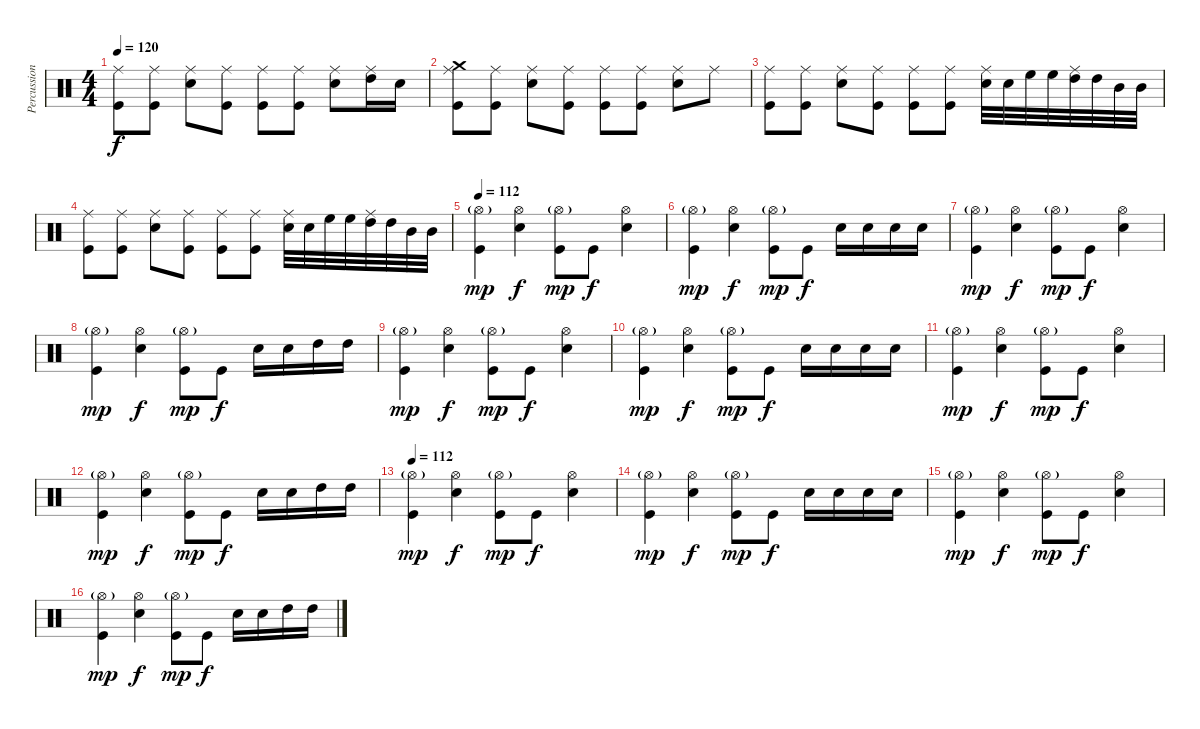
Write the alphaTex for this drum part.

\track ("Percussion" "Percussion") {instrument percussion}
\staff {score}
\articulation defaults
\ts (4 4)
\tempo 120
\clef neutral
\ks c
("Ride (middle)" "Kick (hit)").8{dy f} ("Ride (middle)" "Kick (hit)").8 ("Ride (middle)" "Snare (hit) 2").8 ("Ride (middle)" "Kick (hit)").8 ("Ride (middle)" "Kick (hit)").8 ("Ride (middle)" "Kick (hit)").8 ("Ride (middle)" "Snare (hit) 2").8 ("Ride (middle)" "High Tom (hit)").16 "Snare (hit) 2".16 |
("Crash medium (hit)" "Ride (middle)" "Kick (hit)").8 ("Ride (middle)" "Kick (hit)").8 ("Ride (middle)" "Snare (hit) 2").8 ("Ride (middle)" "Kick (hit)").8 ("Ride (middle)" "Kick (hit)").8 ("Ride (middle)" "Kick (hit)").8 ("Ride (middle)" "Snare (hit) 2").8 "Ride (middle)".8 |
("Ride (middle)" "Kick (hit)").8 ("Ride (middle)" "Kick (hit)").8 ("Ride (middle)" "Snare (hit) 2").8 ("Ride (middle)" "Kick (hit)").8 ("Ride (middle)" "Kick (hit)").8 ("Ride (middle)" "Kick (hit)").8 ("Ride (middle)" "Snare (hit) 2").32 "Snare (hit) 2".32 "High Floor Tom (hit)".32 "High Floor Tom (hit)".32 ("Ride (middle)" "High Tom (hit)").32 "High Tom (hit)".32 "Mid Tom (hit)".32 "Mid Tom (hit)".32 |
("Ride (middle)" "Kick (hit)").8 ("Ride (middle)" "Kick (hit)").8 ("Ride (middle)" "Snare (hit) 2").8 ("Ride (middle)" "Kick (hit)").8 ("Ride (middle)" "Kick (hit)").8 ("Ride (middle)" "Kick (hit)").8 ("Ride (middle)" "Snare (hit) 2").32 "Snare (hit) 2".32 "High Floor Tom (hit)".32 "High Floor Tom (hit)".32 ("Ride (middle)" "High Tom (hit)").32 "High Tom (hit)".32 "Mid Tom (hit)".32 "Mid Tom (hit)".32 |
\tempo 112
("Hi-Hat (open)"{g} "Kick (hit)").4{dy mp} ("Hi-Hat (open)" "Snare (hit) 2").4{dy f} ("Hi-Hat (open)"{g} "Kick (hit)").8{dy mp} "Kick (hit)".8{dy f} ("Hi-Hat (open)" "Snare (hit) 2").4 |
("Hi-Hat (open)"{g} "Kick (hit)").4{dy mp} ("Hi-Hat (open)" "Snare (hit) 2").4{dy f} ("Hi-Hat (open)"{g} "Kick (hit)").8{dy mp} "Kick (hit)".8{dy f} "Snare (hit) 2".16 "Snare (hit) 2".16 "Snare (hit) 2".16 "Snare (hit) 2".16 |
("Hi-Hat (open)"{g} "Kick (hit)").4{dy mp} ("Hi-Hat (open)" "Snare (hit) 2").4{dy f} ("Hi-Hat (open)"{g} "Kick (hit)").8{dy mp} "Kick (hit)".8{dy f} ("Hi-Hat (open)" "Snare (hit) 2").4 |
("Hi-Hat (open)"{g} "Kick (hit)").4{dy mp} ("Hi-Hat (open)" "Snare (hit) 2").4{dy f} ("Hi-Hat (open)"{g} "Kick (hit)").8{dy mp} "Kick (hit)".8{dy f} "Snare (hit) 2".16 "Snare (hit) 2".16 "High Tom (hit)".16 "High Tom (hit)".16 |
("Hi-Hat (open)"{g} "Kick (hit)").4{dy mp} ("Hi-Hat (open)" "Snare (hit) 2").4{dy f} ("Hi-Hat (open)"{g} "Kick (hit)").8{dy mp} "Kick (hit)".8{dy f} ("Hi-Hat (open)" "Snare (hit) 2").4 |
("Hi-Hat (open)"{g} "Kick (hit)").4{dy mp} ("Hi-Hat (open)" "Snare (hit) 2").4{dy f} ("Hi-Hat (open)"{g} "Kick (hit)").8{dy mp} "Kick (hit)".8{dy f} "Snare (hit) 2".16 "Snare (hit) 2".16 "Snare (hit) 2".16 "Snare (hit) 2".16 |
("Hi-Hat (open)"{g} "Kick (hit)").4{dy mp} ("Hi-Hat (open)" "Snare (hit) 2").4{dy f} ("Hi-Hat (open)"{g} "Kick (hit)").8{dy mp} "Kick (hit)".8{dy f} ("Hi-Hat (open)" "Snare (hit) 2").4 |
("Hi-Hat (open)"{g} "Kick (hit)").4{dy mp} ("Hi-Hat (open)" "Snare (hit) 2").4{dy f} ("Hi-Hat (open)"{g} "Kick (hit)").8{dy mp} "Kick (hit)".8{dy f} "Snare (hit) 2".16 "Snare (hit) 2".16 "High Tom (hit)".16 "High Tom (hit)".16 |
\tempo 112
("Hi-Hat (open)"{g} "Kick (hit)").4{dy mp} ("Hi-Hat (open)" "Snare (hit) 2").4{dy f} ("Hi-Hat (open)"{g} "Kick (hit)").8{dy mp} "Kick (hit)".8{dy f} ("Hi-Hat (open)" "Snare (hit) 2").4 |
("Hi-Hat (open)"{g} "Kick (hit)").4{dy mp} ("Hi-Hat (open)" "Snare (hit) 2").4{dy f} ("Hi-Hat (open)"{g} "Kick (hit)").8{dy mp} "Kick (hit)".8{dy f} "Snare (hit) 2".16 "Snare (hit) 2".16 "Snare (hit) 2".16 "Snare (hit) 2".16 |
("Hi-Hat (open)"{g} "Kick (hit)").4{dy mp} ("Hi-Hat (open)" "Snare (hit) 2").4{dy f} ("Hi-Hat (open)"{g} "Kick (hit)").8{dy mp} "Kick (hit)".8{dy f} ("Hi-Hat (open)" "Snare (hit) 2").4 |
("Hi-Hat (open)"{g} "Kick (hit)").4{dy mp} ("Hi-Hat (open)" "Snare (hit) 2").4{dy f} ("Hi-Hat (open)"{g} "Kick (hit)").8{dy mp} "Kick (hit)".8{dy f} "Snare (hit) 2".16 "Snare (hit) 2".16 "High Tom (hit)".16 "High Tom (hit)".16
